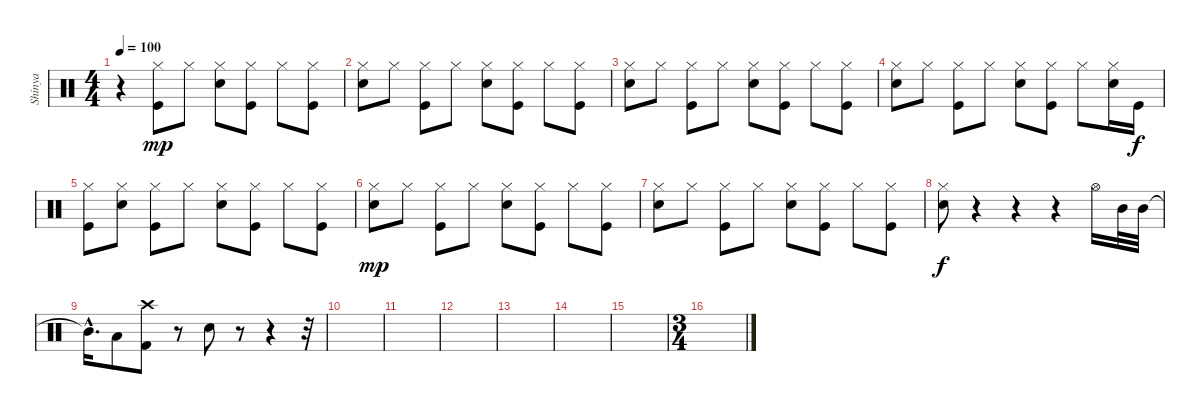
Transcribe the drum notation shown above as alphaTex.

\track ("Shinya" "Shinya") {instrument percussion}
\staff {score}
\articulation defaults
\ts (4 4)
\tempo 100
\clef neutral
\ks c
r.4{dy mp} ("Kick (hit)" "Hi-Hat (closed)").8 "Hi-Hat (closed)".8 ("Snare (hit) 2" "Hi-Hat (closed)").8 ("Kick (hit)" "Hi-Hat (closed)").8 "Hi-Hat (closed)".8 ("Kick (hit)" "Hi-Hat (closed)").8 |
("Snare (hit) 2" "Hi-Hat (closed)").8 "Hi-Hat (closed)".8 ("Kick (hit)" "Hi-Hat (closed)").8 "Hi-Hat (closed)".8 ("Snare (hit) 2" "Hi-Hat (closed)").8 ("Kick (hit)" "Hi-Hat (closed)").8 "Hi-Hat (closed)".8 ("Kick (hit)" "Hi-Hat (closed)").8 |
("Snare (hit) 2" "Hi-Hat (closed)").8 "Hi-Hat (closed)".8 ("Kick (hit)" "Hi-Hat (closed)").8 "Hi-Hat (closed)".8 ("Snare (hit) 2" "Hi-Hat (closed)").8 ("Kick (hit)" "Hi-Hat (closed)").8 "Hi-Hat (closed)".8 ("Kick (hit)" "Hi-Hat (closed)").8 |
("Snare (hit) 2" "Hi-Hat (closed)").8 "Hi-Hat (closed)".8 ("Kick (hit)" "Hi-Hat (closed)").8 "Hi-Hat (closed)".8 ("Snare (hit) 2" "Hi-Hat (closed)").8 ("Kick (hit)" "Hi-Hat (closed)").8 "Hi-Hat (closed)".8 ("Snare (hit) 2" "Hi-Hat (closed)").16 "Kick (hit)".16{dy f} |
("Kick (hit)" "Hi-Hat (closed)").8 ("Snare (hit) 2" "Hi-Hat (closed)").8 ("Kick (hit)" "Hi-Hat (closed)").8 "Hi-Hat (closed)".8 ("Snare (hit) 2" "Hi-Hat (closed)").8 ("Kick (hit)" "Hi-Hat (closed)").8 "Hi-Hat (closed)".8 ("Kick (hit)" "Hi-Hat (closed)").8 |
("Snare (hit) 2" "Hi-Hat (closed)").8{dy mp} "Hi-Hat (closed)".8 ("Kick (hit)" "Hi-Hat (closed)").8 "Hi-Hat (closed)".8 ("Snare (hit) 2" "Hi-Hat (closed)").8 ("Kick (hit)" "Hi-Hat (closed)").8 "Hi-Hat (closed)".8 ("Kick (hit)" "Hi-Hat (closed)").8 |
("Snare (hit) 2" "Hi-Hat (closed)").8 "Hi-Hat (closed)".8 ("Kick (hit)" "Hi-Hat (closed)").8 "Hi-Hat (closed)".8 ("Snare (hit) 2" "Hi-Hat (closed)").8 ("Kick (hit)" "Hi-Hat (closed)").8 "Hi-Hat (closed)".8 ("Kick (hit)" "Hi-Hat (closed)").8 |
("Snare (hit) 2" "Hi-Hat (closed)").8{dy f} r.4 r.4 r.4 "Hi-Hat (open)".16 "Mid Tom (hit)".32 "Mid Tom (hit)".32 |
"Mid Tom (hit)"{hac t}.16{d} "Low Tom (hit)".8 ("Kick (hit) 2" "Crash high (hit)").8 r.8 "Electric Snare (hit)".8 r.8 r.4 r.32 |
|
|
|
|
|
|
\ts (3 4)
